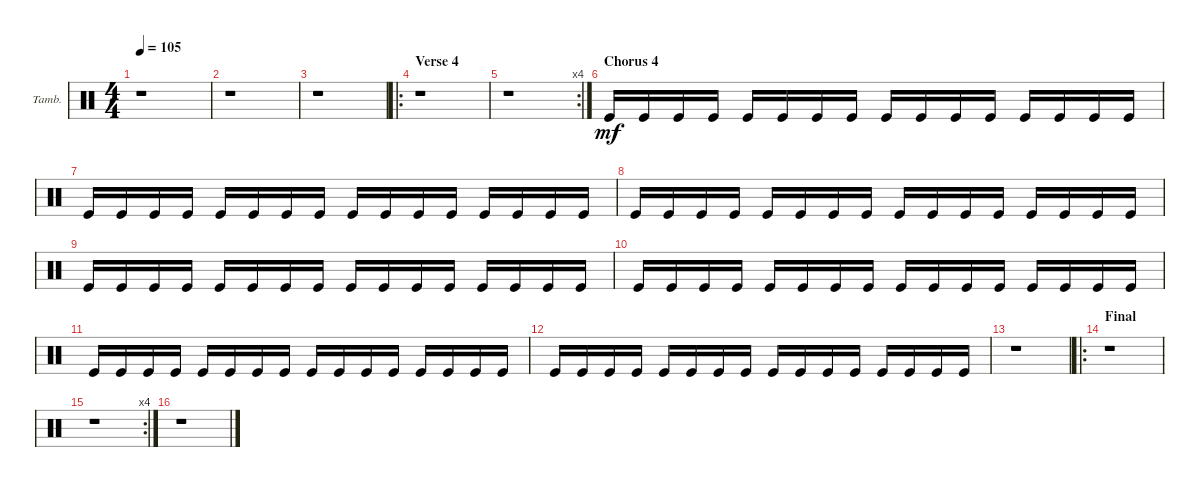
\defaultSystemsLayout 4
\bracketExtendMode groupsimilarinstruments
\firstSystemTrackNameOrientation horizontal
\otherSystemsTrackNameOrientation horizontal
\chordDiagramsInScore
\track ("Tambourine" "Tamb.") {instrument percussion}
\staff {score}
\articulation defaults
\ts (4 4)
\tempo 105
\clef neutral
\scale
0.333333
\ks c
r.1{dy p} |
\scale
0.333333 r.1 |
\scale
0.301075 r.1 |
\ro
\section ("" "Verse 4")
\scale
0.365591 r.1 |
\rc 4
\scale
0.333333 r.1 |
\section ("" "Chorus 4")
\scale
0.333333 "Kick (hit)".16{dy mf} "Kick (hit)".16 "Kick (hit)".16 "Kick (hit)".16 "Kick (hit)".16 "Kick (hit)".16 "Kick (hit)".16 "Kick (hit)".16 "Kick (hit)".16 "Kick (hit)".16 "Kick (hit)".16 "Kick (hit)".16 "Kick (hit)".16 "Kick (hit)".16 "Kick (hit)".16 "Kick (hit)".16 |
\scale
0.333333 "Kick (hit)".16 "Kick (hit)".16 "Kick (hit)".16 "Kick (hit)".16 "Kick (hit)".16 "Kick (hit)".16 "Kick (hit)".16 "Kick (hit)".16 "Kick (hit)".16 "Kick (hit)".16 "Kick (hit)".16 "Kick (hit)".16 "Kick (hit)".16 "Kick (hit)".16 "Kick (hit)".16 "Kick (hit)".16 |
\scale
0.333333 "Kick (hit)".16 "Kick (hit)".16 "Kick (hit)".16 "Kick (hit)".16 "Kick (hit)".16 "Kick (hit)".16 "Kick (hit)".16 "Kick (hit)".16 "Kick (hit)".16 "Kick (hit)".16 "Kick (hit)".16 "Kick (hit)".16 "Kick (hit)".16 "Kick (hit)".16 "Kick (hit)".16 "Kick (hit)".16 |
\scale
0.333333 "Kick (hit)".16 "Kick (hit)".16 "Kick (hit)".16 "Kick (hit)".16 "Kick (hit)".16 "Kick (hit)".16 "Kick (hit)".16 "Kick (hit)".16 "Kick (hit)".16 "Kick (hit)".16 "Kick (hit)".16 "Kick (hit)".16 "Kick (hit)".16 "Kick (hit)".16 "Kick (hit)".16 "Kick (hit)".16 |
\scale
0.333333 "Kick (hit)".16 "Kick (hit)".16 "Kick (hit)".16 "Kick (hit)".16 "Kick (hit)".16 "Kick (hit)".16 "Kick (hit)".16 "Kick (hit)".16 "Kick (hit)".16 "Kick (hit)".16 "Kick (hit)".16 "Kick (hit)".16 "Kick (hit)".16 "Kick (hit)".16 "Kick (hit)".16 "Kick (hit)".16 |
\scale
0.333333 "Kick (hit)".16 "Kick (hit)".16 "Kick (hit)".16 "Kick (hit)".16 "Kick (hit)".16 "Kick (hit)".16 "Kick (hit)".16 "Kick (hit)".16 "Kick (hit)".16 "Kick (hit)".16 "Kick (hit)".16 "Kick (hit)".16 "Kick (hit)".16 "Kick (hit)".16 "Kick (hit)".16 "Kick (hit)".16 |
"Kick (hit)".16 "Kick (hit)".16 "Kick (hit)".16 "Kick (hit)".16 "Kick (hit)".16 "Kick (hit)".16 "Kick (hit)".16 "Kick (hit)".16 "Kick (hit)".16 "Kick (hit)".16 "Kick (hit)".16 "Kick (hit)".16 "Kick (hit)".16 "Kick (hit)".16 "Kick (hit)".16 "Kick (hit)".16 |
r.1 |
\ro
\section ("" "Final")
r.1 |
\rc 4
r.1 |
r.1
